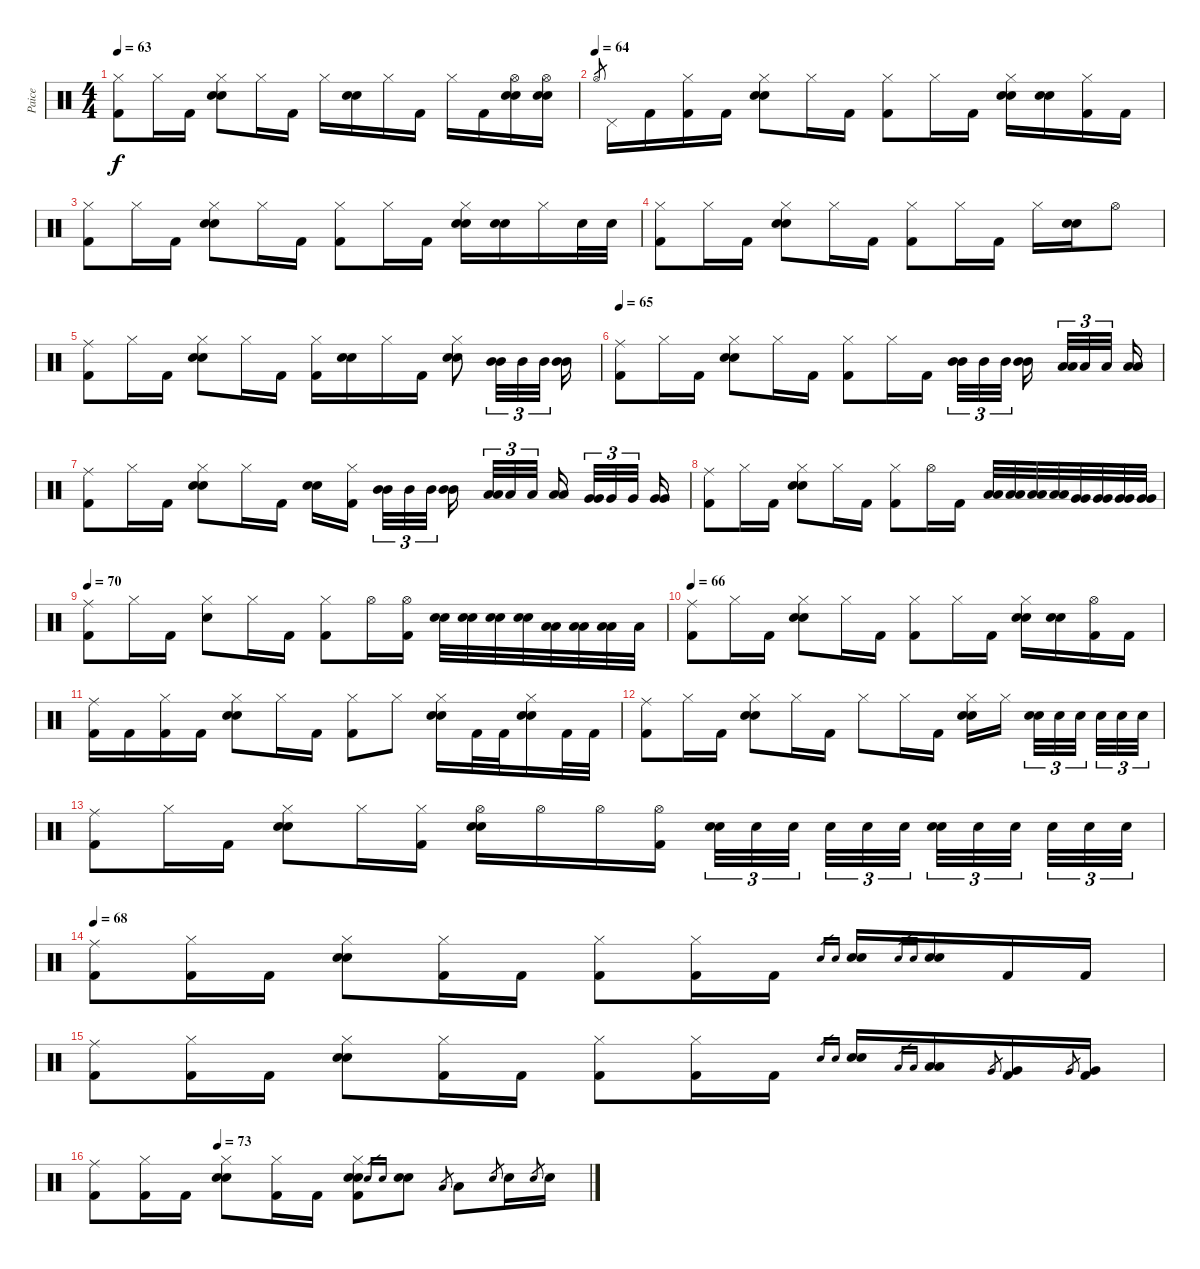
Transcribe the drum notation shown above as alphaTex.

\track ("Paice" "Paice") {instrument percussion}
\staff {score}
\articulation defaults
\ts (4 4)
\tempo 63
\clef neutral
\ks c
("Hi-Hat (closed)" "Kick (hit) 2").8{dy f} "Hi-Hat (closed)".16 "Kick (hit) 2".16 ("Hi-Hat (closed)" "Electric Snare (hit)" "Electric Snare (hit)").8 "Hi-Hat (closed)".16 "Kick (hit) 2".16 "Hi-Hat (closed)".16 ("Electric Snare (hit)" "Electric Snare (hit)").16 "Hi-Hat (closed)".16 "Kick (hit) 2".16 "Hi-Hat (closed)".16 "Kick (hit) 2".16 ("Hi-Hat (open)" "Electric Snare (hit)" "Electric Snare (hit)").16 ("Hi-Hat (open)" "Electric Snare (hit)" "Electric Snare (hit)").16 |
\tempo (64)
"Hi-Hat (open)".8{gr} "Pedal Hi-Hat (hit)".16 "Kick (hit) 2".16 ("Hi-Hat (closed)" "Kick (hit) 2").16 "Kick (hit) 2".16 ("Hi-Hat (closed)" "Electric Snare (hit)" "Electric Snare (hit)").8 "Hi-Hat (closed)".16 "Kick (hit) 2".16 ("Hi-Hat (closed)" "Kick (hit) 2").8 "Hi-Hat (closed)".16 "Kick (hit) 2".16 ("Hi-Hat (closed)" "Electric Snare (hit)" "Electric Snare (hit)").16 ("Electric Snare (hit)" "Electric Snare (hit)").16 ("Hi-Hat (closed)" "Kick (hit) 2").16 "Kick (hit) 2".16 |
("Hi-Hat (closed)" "Kick (hit) 2").8 "Hi-Hat (closed)".16 "Kick (hit) 2".16 ("Hi-Hat (closed)" "Electric Snare (hit)" "Electric Snare (hit)").8 "Hi-Hat (closed)".16 "Kick (hit) 2".16 ("Hi-Hat (closed)" "Kick (hit) 2").8 "Hi-Hat (closed)".16 "Kick (hit) 2".16 ("Hi-Hat (closed)" "Electric Snare (hit)" "Electric Snare (hit)").16 ("Electric Snare (hit)" "Electric Snare (hit)").16 "Hi-Hat (closed)".16 "Electric Snare (hit)".32 "Electric Snare (hit)".32 |
("Hi-Hat (closed)" "Kick (hit) 2").8 "Hi-Hat (closed)".16 "Kick (hit) 2".16 ("Hi-Hat (closed)" "Electric Snare (hit)" "Electric Snare (hit)").8 "Hi-Hat (closed)".16 "Kick (hit) 2".16 ("Hi-Hat (closed)" "Kick (hit) 2").8 "Hi-Hat (closed)".16 "Kick (hit) 2".16 "Hi-Hat (closed)".16 ("Electric Snare (hit)" "Electric Snare (hit)").16 "Hi-Hat (open)".8 |
("Ride (middle)" "Kick (hit) 2").8 "Hi-Hat (closed)".16 "Kick (hit) 2".16 ("Hi-Hat (closed)" "Electric Snare (hit)" "Electric Snare (hit)").8 "Hi-Hat (closed)".16 "Kick (hit) 2".16 ("Hi-Hat (closed)" "Kick (hit) 2").16 ("Electric Snare (hit)" "Electric Snare (hit)").16 "Hi-Hat (closed)".16 "Kick (hit) 2".16 ("Hi-Hat (closed)" "Electric Snare (hit)" "Electric Snare (hit)").8 ("Mid Tom (hit)" "Mid Tom (hit)").32{tu (3 2)} "Mid Tom (hit)".32{tu (3 2)} "Mid Tom (hit)".32{tu (3 2) beam splitsecondary} ("Mid Tom (hit)" "Mid Tom (hit)").16 |
\tempo 65
("Ride (middle)" "Kick (hit) 2").8 "Hi-Hat (closed)".16 "Kick (hit) 2".16 ("Hi-Hat (closed)" "Electric Snare (hit)" "Electric Snare (hit)").8 "Hi-Hat (closed)".16 "Kick (hit) 2".16 ("Hi-Hat (closed)" "Kick (hit) 2").8 "Hi-Hat (closed)".16 "Kick (hit) 2".16 ("Mid Tom (hit)" "Mid Tom (hit)").32{tu (3 2)} "Mid Tom (hit)".32{tu (3 2)} "Mid Tom (hit)".32{tu (3 2) beam splitsecondary} ("Mid Tom (hit)" "Mid Tom (hit)").16{beam splitsecondary} ("Low Tom (hit)" "Low Tom (hit)").32{tu (3 2)} "Low Tom (hit)".32{tu (3 2)} "Low Tom (hit)".32{tu (3 2) beam splitsecondary} ("Low Tom (hit)" "Low Tom (hit)").16 |
("Ride (middle)" "Kick (hit) 2").8 "Hi-Hat (closed)".16 "Kick (hit) 2".16 ("Hi-Hat (closed)" "Electric Snare (hit)" "Electric Snare (hit)").8 "Hi-Hat (closed)".16 "Kick (hit) 2".16 ("Electric Snare (hit)" "Electric Snare (hit)").16 ("Hi-Hat (closed)" "Kick (hit) 2").16{beam splitsecondary} ("Mid Tom (hit)" "Mid Tom (hit)").32{tu (3 2)} "Mid Tom (hit)".32{tu (3 2)} "Mid Tom (hit)".32{tu (3 2) beam splitsecondary} ("Mid Tom (hit)" "Mid Tom (hit)").16 ("Low Tom (hit)" "Low Tom (hit)").32{tu (3 2)} "Low Tom (hit)".32{tu (3 2)} "Low Tom (hit)".32{tu (3 2) beam splitsecondary} ("Low Tom (hit)" "Low Tom (hit)").16{beam splitsecondary} ("Very Low Tom (hit)" "Very Low Tom (hit)").32{tu (3 2)} "Very Low Tom (hit)".32{tu (3 2)} "Very Low Tom (hit)".32{tu (3 2) beam splitsecondary} ("Very Low Tom (hit)" "Very Low Tom (hit)").16 |
("Ride (middle)" "Kick (hit) 2").8 "Hi-Hat (closed)".16 "Kick (hit) 2".16 ("Hi-Hat (closed)" "Electric Snare (hit)" "Electric Snare (hit)").8 "Hi-Hat (closed)".16 "Kick (hit) 2".16 ("Hi-Hat (closed)" "Kick (hit) 2").8 "Hi-Hat (open)".16 "Kick (hit) 2".16 ("Low Tom (hit)" "Low Tom (hit)").32 ("Low Tom (hit)" "Low Tom (hit)").32 ("Low Tom (hit)" "Low Tom (hit)").32 ("Low Tom (hit)" "Low Tom (hit)").32 ("Very Low Tom (hit)" "Very Low Tom (hit)").32 ("Very Low Tom (hit)" "Very Low Tom (hit)").32 ("Very Low Tom (hit)" "Very Low Tom (hit)").32 ("Very Low Tom (hit)" "Very Low Tom (hit)").32 |
\tempo 70
("Ride (middle)" "Kick (hit) 2").8 "Hi-Hat (closed)".16 "Kick (hit) 2".16 ("Hi-Hat (closed)" "Snare (hit) 2").8 "Hi-Hat (closed)".16 "Kick (hit) 2".16 ("Hi-Hat (closed)" "Kick (hit) 2").8 "Hi-Hat (open)".16 ("Hi-Hat (open)" "Kick (hit) 2").16 ("Electric Snare (hit)" "Electric Snare (hit)").32 ("Electric Snare (hit)" "Electric Snare (hit)").32 ("Electric Snare (hit)" "Electric Snare (hit)").32 ("Electric Snare (hit)" "Electric Snare (hit)").32 ("Low Tom (hit)" "Low Tom (hit)").32 ("Low Tom (hit)" "Low Tom (hit)").32 ("Low Tom (hit)" "Low Tom (hit)").32 "Low Tom (hit)".32 |
\tempo 65
\tempo 66
("Ride (middle)" "Kick (hit) 2").8 "Hi-Hat (closed)".16 "Kick (hit) 2".16 ("Hi-Hat (closed)" "Electric Snare (hit)" "Electric Snare (hit)").8 "Hi-Hat (closed)".16 "Kick (hit) 2".16 ("Hi-Hat (closed)" "Kick (hit) 2").8 "Hi-Hat (closed)".16 "Kick (hit) 2".16 ("Hi-Hat (closed)" "Electric Snare (hit)" "Electric Snare (hit)").16 ("Electric Snare (hit)" "Electric Snare (hit)").16 ("Hi-Hat (open)" "Kick (hit) 2").16 "Kick (hit) 2".16 |
("Ride (middle)" "Kick (hit) 2").16 "Kick (hit) 2".16 ("Hi-Hat (closed)" "Kick (hit) 2").16 "Kick (hit) 2".16 ("Hi-Hat (closed)" "Electric Snare (hit)" "Electric Snare (hit)").8 "Hi-Hat (closed)".16 "Kick (hit) 2".16 ("Hi-Hat (closed)" "Kick (hit) 2").8 "Hi-Hat (closed)".8 ("Hi-Hat (closed)" "Electric Snare (hit)" "Electric Snare (hit)").16 "Kick (hit) 2".32 "Kick (hit) 2".32 ("Hi-Hat (closed)" "Electric Snare (hit)" "Electric Snare (hit)").16 "Kick (hit) 2".32 "Kick (hit) 2".32 |
("Ride (middle)" "Kick (hit) 2").8 "Hi-Hat (closed)".16 "Kick (hit) 2".16 ("Hi-Hat (closed)" "Electric Snare (hit)" "Electric Snare (hit)").8 "Hi-Hat (closed)".16 "Kick (hit) 2".16 "Hi-Hat (closed)".8 "Hi-Hat (closed)".16 "Kick (hit) 2".16 ("Hi-Hat (closed)" "Electric Snare (hit)" "Electric Snare (hit)").16 "Hi-Hat (closed)".16{beam splitsecondary} ("Electric Snare (hit)" "Electric Snare (hit)").32{tu (3 2)} "Electric Snare (hit)".32{tu (3 2)} "Electric Snare (hit)".32{tu (3 2) beam splitsecondary} "Electric Snare (hit)".32{tu (3 2)} "Electric Snare (hit)".32{tu (3 2)} "Electric Snare (hit)".32{tu (3 2)} |
("Ride (middle)" "Kick (hit) 2").8 "Hi-Hat (closed)".16 "Kick (hit) 2".16 ("Hi-Hat (closed)" "Electric Snare (hit)" "Electric Snare (hit)").8 "Hi-Hat (closed)".16 ("Hi-Hat (closed)" "Kick (hit) 2").16 ("Hi-Hat (open)" "Electric Snare (hit)" "Electric Snare (hit)").16 "Hi-Hat (open)".16 "Hi-Hat (open)".16 ("Hi-Hat (open)" "Kick (hit) 2").16 ("Electric Snare (hit)" "Electric Snare (hit)").32{tu (3 2)} "Electric Snare (hit)".32{tu (3 2)} "Electric Snare (hit)".32{tu (3 2) beam splitsecondary} "Electric Snare (hit)".32{tu (3 2)} "Electric Snare (hit)".32{tu (3 2)} "Electric Snare (hit)".32{tu (3 2) beam splitsecondary} ("Electric Snare (hit)" "Electric Snare (hit)").32{tu (3 2)} "Electric Snare (hit)".32{tu (3 2)} "Electric Snare (hit)".32{tu (3 2) beam splitsecondary} "Electric Snare (hit)".32{tu (3 2)} "Electric Snare (hit)".32{tu (3 2)} "Electric Snare (hit)".32{tu (3 2)} |
\tempo 70
\tempo 68
("Ride (middle)" "Kick (hit) 2").8 ("Hi-Hat (closed)" "Kick (hit) 2").16 "Kick (hit) 2".16 ("Hi-Hat (closed)" "Electric Snare (hit)" "Electric Snare (hit)").8 ("Hi-Hat (closed)" "Kick (hit) 2").16 "Kick (hit) 2".16 ("Hi-Hat (closed)" "Kick (hit) 2").8 ("Hi-Hat (closed)" "Kick (hit) 2").16 "Kick (hit) 2".16 "Electric Snare (hit)".16{gr} "Electric Snare (hit)".16{gr} ("Electric Snare (hit)" "Electric Snare (hit)").16 "Electric Snare (hit)".16{gr} "Electric Snare (hit)".16{gr} ("Electric Snare (hit)" "Electric Snare (hit)").16 "Kick (hit) 2".16 "Kick (hit) 2".16 |
("Ride (middle)" "Kick (hit) 2").8 ("Hi-Hat (closed)" "Kick (hit) 2").16 "Kick (hit) 2".16 ("Hi-Hat (closed)" "Electric Snare (hit)" "Electric Snare (hit)").8 ("Hi-Hat (closed)" "Kick (hit) 2").16 "Kick (hit) 2".16 ("Hi-Hat (closed)" "Kick (hit) 2").8 ("Hi-Hat (closed)" "Kick (hit) 2").16 "Kick (hit) 2".16 "Electric Snare (hit)".16{gr} "Electric Snare (hit)".16{gr} ("Electric Snare (hit)" "Electric Snare (hit)").16 "Low Tom (hit)".16{gr} "Low Tom (hit)".16{gr} ("Low Tom (hit)" "Low Tom (hit)").16 "Very Low Tom (hit)".8{gr} ("Very Low Tom (hit)" "Kick (hit) 2").16 "Very Low Tom (hit)".8{gr} ("Very Low Tom (hit)" "Kick (hit) 2").16 |
\tempo (73 0.25)
("Ride (middle)" "Kick (hit) 2").8 ("Hi-Hat (closed)" "Kick (hit) 2").16 "Kick (hit) 2".16 ("Hi-Hat (closed)" "Electric Snare (hit)" "Electric Snare (hit)").8 ("Hi-Hat (closed)" "Kick (hit) 2").16 "Kick (hit) 2".16 ("Hi-Hat (closed)" "Electric Snare (hit)" "Electric Snare (hit)" "Kick (hit) 2").8 "Electric Snare (hit)".16{gr} "Electric Snare (hit)".16{gr} ("Electric Snare (hit)" "Electric Snare (hit)").8 "Low Tom (hit)".8{gr} "Low Tom (hit)".8 "Electric Snare (hit)".8{gr} "Electric Snare (hit)".16 "Electric Snare (hit)".8{gr} "Electric Snare (hit)".16
